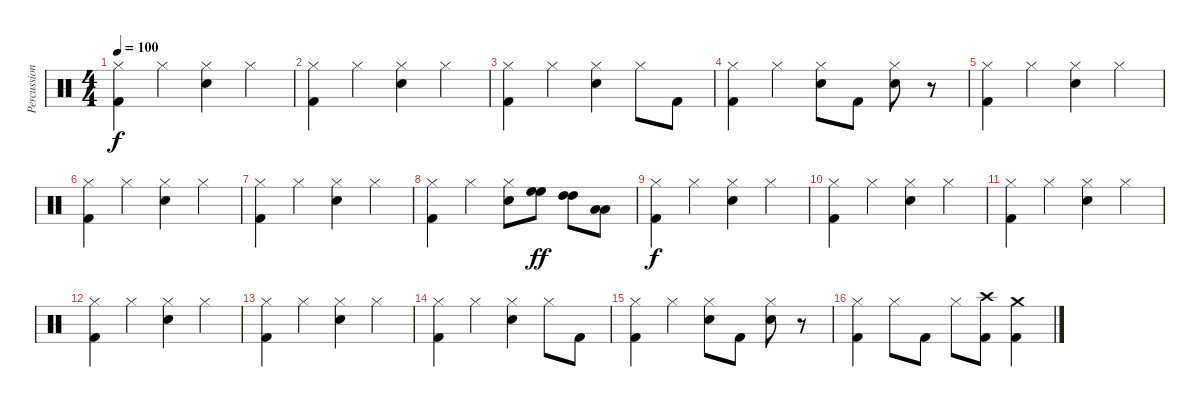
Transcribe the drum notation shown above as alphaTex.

\track ("Percussion" "Percussion") {instrument percussion}
\staff {score}
\articulation defaults
\ts (4 4)
\tempo 100
\clef neutral
\ks c
("Kick (hit) 2" "Hi-Hat (closed)").4{dy f} "Hi-Hat (closed)".4 ("Snare (hit) 2" "Hi-Hat (closed)").4 "Hi-Hat (closed)".4 |
("Kick (hit) 2" "Hi-Hat (closed)").4 "Hi-Hat (closed)".4 ("Snare (hit) 2" "Hi-Hat (closed)").4 "Hi-Hat (closed)".4 |
("Kick (hit) 2" "Hi-Hat (closed)").4 "Hi-Hat (closed)".4 ("Snare (hit) 2" "Hi-Hat (closed)").4 "Hi-Hat (closed)".8 "Kick (hit) 2".8 |
("Kick (hit) 2" "Hi-Hat (closed)").4 "Hi-Hat (closed)".4 ("Snare (hit) 2" "Hi-Hat (closed)").8 "Kick (hit) 2".8 ("Snare (hit) 2" "Hi-Hat (closed)").8 r.8 |
("Kick (hit) 2" "Hi-Hat (closed)").4 "Hi-Hat (closed)".4 ("Snare (hit) 2" "Hi-Hat (closed)").4 "Hi-Hat (closed)".4 |
("Kick (hit) 2" "Hi-Hat (closed)").4 "Hi-Hat (closed)".4 ("Snare (hit) 2" "Hi-Hat (closed)").4 "Hi-Hat (closed)".4 |
("Kick (hit) 2" "Hi-Hat (closed)").4 "Hi-Hat (closed)".4 ("Snare (hit) 2" "Hi-Hat (closed)").4 "Hi-Hat (closed)".4 |
("Kick (hit) 2" "Hi-Hat (closed)").4 "Hi-Hat (closed)".4 ("Snare (hit) 2" "Hi-Hat (closed)").8 ("High Floor Tom (hit)" "High Floor Tom (hit)").8{dy ff} ("High Tom (hit)" "High Tom (hit)").8 ("Low Tom (hit)" "Low Tom (hit)").8 |
("Kick (hit) 2" "Hi-Hat (closed)").4{dy f} "Hi-Hat (closed)".4 ("Snare (hit) 2" "Hi-Hat (closed)").4 "Hi-Hat (closed)".4 |
("Kick (hit) 2" "Hi-Hat (closed)").4 "Hi-Hat (closed)".4 ("Snare (hit) 2" "Hi-Hat (closed)").4 "Hi-Hat (closed)".4 |
("Kick (hit) 2" "Hi-Hat (closed)").4 "Hi-Hat (closed)".4 ("Snare (hit) 2" "Hi-Hat (closed)").4 "Hi-Hat (closed)".4 |
("Kick (hit) 2" "Hi-Hat (closed)").4 "Hi-Hat (closed)".4 ("Snare (hit) 2" "Hi-Hat (closed)").4 "Hi-Hat (closed)".4 |
("Kick (hit) 2" "Hi-Hat (closed)").4 "Hi-Hat (closed)".4 ("Snare (hit) 2" "Hi-Hat (closed)").4 "Hi-Hat (closed)".4 |
("Kick (hit) 2" "Hi-Hat (closed)").4 "Hi-Hat (closed)".4 ("Snare (hit) 2" "Hi-Hat (closed)").4 "Hi-Hat (closed)".8 "Kick (hit) 2".8 |
("Kick (hit) 2" "Hi-Hat (closed)").4 "Hi-Hat (closed)".4 ("Snare (hit) 2" "Hi-Hat (closed)").8 "Kick (hit) 2".8 ("Snare (hit) 2" "Hi-Hat (closed)").8 r.8 |
("Kick (hit) 2" "Hi-Hat (closed)").4 "Hi-Hat (closed)".8 "Kick (hit) 2".8 "Hi-Hat (closed)".8 ("Kick (hit) 2" "Crash high (hit)").8 ("Kick (hit) 2" "Crash medium (hit)").4
